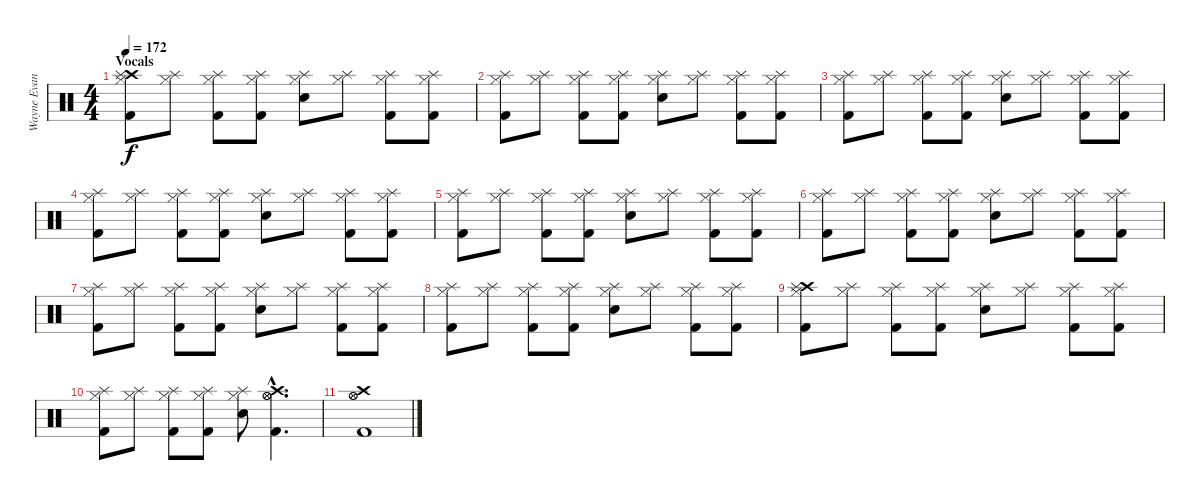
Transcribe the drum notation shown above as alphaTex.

\track ("Wayne Evans  " "Wayne Evan") {instrument percussion}
\staff {score}
\articulation defaults
\ts (4 4)
\section ("" "Vocals")
\tempo 172
\clef neutral
\ks c
("Crash high (hit)" "Splash (hit)" "Hi-Hat (closed)" "Kick (hit) 2").8{dy f} ("Splash (hit)" "Hi-Hat (closed)").8 ("Splash (hit)" "Hi-Hat (closed)" "Kick (hit) 2").8 ("Splash (hit)" "Hi-Hat (closed)" "Kick (hit) 2").8 ("Splash (hit)" "Hi-Hat (closed)" "Electric Snare (hit)").8 ("Splash (hit)" "Hi-Hat (closed)").8 ("Splash (hit)" "Hi-Hat (closed)" "Kick (hit) 2").8 ("Splash (hit)" "Hi-Hat (closed)" "Kick (hit) 2").8 |
("Splash (hit)" "Hi-Hat (closed)" "Kick (hit) 2").8 ("Splash (hit)" "Hi-Hat (closed)").8 ("Splash (hit)" "Hi-Hat (closed)" "Kick (hit) 2").8 ("Splash (hit)" "Hi-Hat (closed)" "Kick (hit) 2").8 ("Splash (hit)" "Hi-Hat (closed)" "Electric Snare (hit)").8 ("Splash (hit)" "Hi-Hat (closed)").8 ("Splash (hit)" "Hi-Hat (closed)" "Kick (hit) 2").8 ("Splash (hit)" "Hi-Hat (closed)" "Kick (hit) 2").8 |
("Splash (hit)" "Hi-Hat (closed)" "Kick (hit) 2").8 ("Splash (hit)" "Hi-Hat (closed)").8 ("Splash (hit)" "Hi-Hat (closed)" "Kick (hit) 2").8 ("Splash (hit)" "Hi-Hat (closed)" "Kick (hit) 2").8 ("Splash (hit)" "Hi-Hat (closed)" "Electric Snare (hit)").8 ("Splash (hit)" "Hi-Hat (closed)").8 ("Splash (hit)" "Hi-Hat (closed)" "Kick (hit) 2").8 ("Splash (hit)" "Hi-Hat (closed)" "Kick (hit) 2").8 |
("Splash (hit)" "Hi-Hat (closed)" "Kick (hit) 2").8 ("Splash (hit)" "Hi-Hat (closed)").8 ("Splash (hit)" "Hi-Hat (closed)" "Kick (hit) 2").8 ("Splash (hit)" "Hi-Hat (closed)" "Kick (hit) 2").8 ("Splash (hit)" "Hi-Hat (closed)" "Electric Snare (hit)").8 ("Splash (hit)" "Hi-Hat (closed)").8 ("Splash (hit)" "Hi-Hat (closed)" "Kick (hit) 2").8 ("Splash (hit)" "Hi-Hat (closed)" "Kick (hit) 2").8 |
("Splash (hit)" "Hi-Hat (closed)" "Kick (hit) 2").8 ("Splash (hit)" "Hi-Hat (closed)").8 ("Splash (hit)" "Hi-Hat (closed)" "Kick (hit) 2").8 ("Splash (hit)" "Hi-Hat (closed)" "Kick (hit) 2").8 ("Splash (hit)" "Hi-Hat (closed)" "Electric Snare (hit)").8 ("Splash (hit)" "Hi-Hat (closed)").8 ("Splash (hit)" "Hi-Hat (closed)" "Kick (hit) 2").8 ("Splash (hit)" "Hi-Hat (closed)" "Kick (hit) 2").8 |
("Splash (hit)" "Hi-Hat (closed)" "Kick (hit) 2").8 ("Splash (hit)" "Hi-Hat (closed)").8 ("Splash (hit)" "Hi-Hat (closed)" "Kick (hit) 2").8 ("Splash (hit)" "Hi-Hat (closed)" "Kick (hit) 2").8 ("Splash (hit)" "Hi-Hat (closed)" "Electric Snare (hit)").8 ("Splash (hit)" "Hi-Hat (closed)").8 ("Splash (hit)" "Hi-Hat (closed)" "Kick (hit) 2").8 ("Splash (hit)" "Hi-Hat (closed)" "Kick (hit) 2").8 |
("Splash (hit)" "Hi-Hat (closed)" "Kick (hit) 2").8 ("Splash (hit)" "Hi-Hat (closed)").8 ("Splash (hit)" "Hi-Hat (closed)" "Kick (hit) 2").8 ("Splash (hit)" "Hi-Hat (closed)" "Kick (hit) 2").8 ("Splash (hit)" "Hi-Hat (closed)" "Electric Snare (hit)").8 ("Splash (hit)" "Hi-Hat (closed)").8 ("Splash (hit)" "Hi-Hat (closed)" "Kick (hit) 2").8 ("Splash (hit)" "Hi-Hat (closed)" "Kick (hit) 2").8 |
("Splash (hit)" "Hi-Hat (closed)" "Kick (hit) 2").8 ("Splash (hit)" "Hi-Hat (closed)").8 ("Splash (hit)" "Hi-Hat (closed)" "Kick (hit) 2").8 ("Splash (hit)" "Hi-Hat (closed)" "Kick (hit) 2").8 ("Splash (hit)" "Hi-Hat (closed)" "Electric Snare (hit)").8 ("Splash (hit)" "Hi-Hat (closed)").8 ("Splash (hit)" "Hi-Hat (closed)" "Kick (hit) 2").8 ("Splash (hit)" "Hi-Hat (closed)" "Kick (hit) 2").8 |
("Crash high (hit)" "Splash (hit)" "Hi-Hat (closed)" "Kick (hit) 2").8 ("Splash (hit)" "Hi-Hat (closed)").8 ("Splash (hit)" "Hi-Hat (closed)" "Kick (hit) 2").8 ("Splash (hit)" "Hi-Hat (closed)" "Kick (hit) 2").8 ("Splash (hit)" "Hi-Hat (closed)" "Electric Snare (hit)").8 ("Splash (hit)" "Hi-Hat (closed)").8 ("Splash (hit)" "Hi-Hat (closed)" "Kick (hit) 2").8 ("Splash (hit)" "Hi-Hat (closed)" "Kick (hit) 2").8 |
("Splash (hit)" "Hi-Hat (closed)" "Kick (hit) 2").8 ("Splash (hit)" "Hi-Hat (closed)").8 ("Splash (hit)" "Hi-Hat (closed)" "Kick (hit) 2").8 ("Splash (hit)" "Hi-Hat (closed)" "Kick (hit) 2").8 ("Splash (hit)" "Hi-Hat (closed)" "Electric Snare (hit)").8 ("Crash high (hit)"{hac} "Hi-Hat (open)"{hac} "Hi-Hat (open)"{hac} "Kick (hit) 2"{hac}).4{d} |
("Crash high (hit)" "Hi-Hat (open)" "Hi-Hat (open)" "Kick (hit) 2").1
